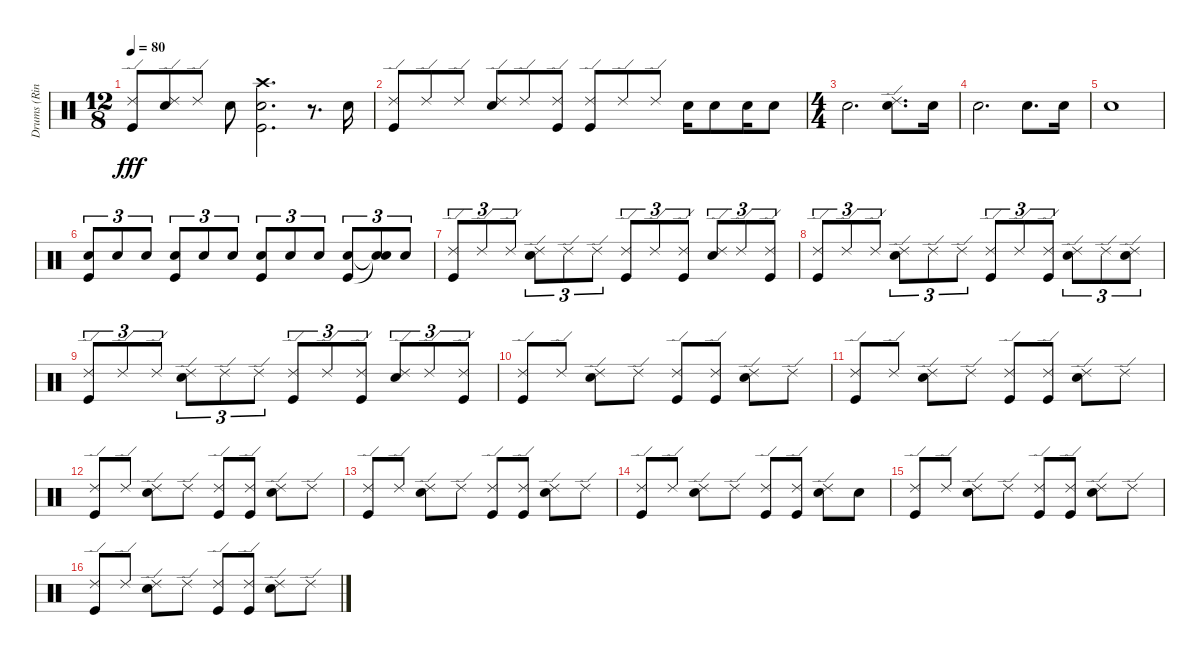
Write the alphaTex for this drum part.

\track ("Drums (Ringo Starr)" "Drums (Rin") {instrument percussion}
\staff {score}
\articulation defaults
\ts (12 8)
\tempo 80
\clef neutral
\ks c
("Ride (edge) 2" "Kick (hit)").8{dy fff} ("Ride (edge) 2" "Electric Snare (hit)").8 "Ride (edge) 2".8 "Electric Snare (hit)".8 ("Crash high (hit)" "Electric Snare (hit)" "Kick (hit)").2{d} r.8{d} "Electric Snare (hit)".16 |
("Ride (edge) 2" "Kick (hit)").8 "Ride (edge) 2".8 "Ride (edge) 2".8 ("Ride (edge) 2" "Electric Snare (hit)").8 "Ride (edge) 2".8 ("Ride (edge) 2" "Kick (hit)").8 ("Ride (edge) 2" "Kick (hit)").8 "Ride (edge) 2".8 "Ride (edge) 2".8 "Electric Snare (hit)".16 "Electric Snare (hit)".8 "Electric Snare (hit)".16 "Electric Snare (hit)".8 |
\ts (4 4)
"Electric Snare (hit)".2{d} ("Electric Snare (hit)" "Ride (edge) 2").8{d} "Electric Snare (hit)".16 |
"Electric Snare (hit)".2{d} "Electric Snare (hit)".8{d} "Electric Snare (hit)".16 |
"Electric Snare (hit)".1 |
("Kick (hit)" "Electric Snare (hit)").8{tu (3 2)} "Electric Snare (hit)".8{tu (3 2)} "Electric Snare (hit)".8{tu (3 2)} ("Kick (hit)" "Electric Snare (hit)").8{tu (3 2)} "Electric Snare (hit)".8{tu (3 2)} "Electric Snare (hit)".8{tu (3 2)} ("Kick (hit)" "Electric Snare (hit)").8{tu (3 2)} "Electric Snare (hit)".8{tu (3 2)} "Electric Snare (hit)".8{tu (3 2)} ("Kick (hit)" "Electric Snare (hit)").8{tu (3 2)} ("Snare (hit)"{t} "Snare (hit)"{t}).8{tu (3 2)} "Electric Snare (hit)".8{tu (3 2)} |
("Ride (edge) 2" "Kick (hit)").8{tu (3 2)} "Ride (edge) 2".8{tu (3 2)} "Ride (edge) 2".8{tu (3 2)} ("Ride (edge) 2" "Electric Snare (hit)").8{tu (3 2)} "Ride (edge) 2".8{tu (3 2)} "Ride (edge) 2".8{tu (3 2)} ("Ride (edge) 2" "Kick (hit)").8{tu (3 2)} "Ride (edge) 2".8{tu (3 2)} ("Ride (edge) 2" "Kick (hit)").8{tu (3 2)} ("Ride (edge) 2" "Electric Snare (hit)").8{tu (3 2)} "Ride (edge) 2".8{tu (3 2)} ("Ride (edge) 2" "Kick (hit)").8{tu (3 2)} |
("Ride (edge) 2" "Kick (hit)").8{tu (3 2)} "Ride (edge) 2".8{tu (3 2)} "Ride (edge) 2".8{tu (3 2)} ("Ride (edge) 2" "Electric Snare (hit)").8{tu (3 2)} "Ride (edge) 2".8{tu (3 2)} "Ride (edge) 2".8{tu (3 2)} ("Ride (edge) 2" "Kick (hit)").8{tu (3 2)} "Ride (edge) 2".8{tu (3 2)} ("Ride (edge) 2" "Kick (hit)").8{tu (3 2)} ("Ride (edge) 2" "Electric Snare (hit)").8{tu (3 2)} "Ride (edge) 2".8{tu (3 2)} ("Ride (edge) 2" "Electric Snare (hit)").8{tu (3 2)} |
("Ride (edge) 2" "Kick (hit)").8{tu (3 2)} "Ride (edge) 2".8{tu (3 2)} "Ride (edge) 2".8{tu (3 2)} ("Ride (edge) 2" "Electric Snare (hit)").8{tu (3 2)} "Ride (edge) 2".8{tu (3 2)} "Ride (edge) 2".8{tu (3 2)} ("Ride (edge) 2" "Kick (hit)").8{tu (3 2)} "Ride (edge) 2".8{tu (3 2)} ("Ride (edge) 2" "Kick (hit)").8{tu (3 2)} ("Ride (edge) 2" "Electric Snare (hit)").8{tu (3 2)} "Ride (edge) 2".8{tu (3 2)} ("Ride (edge) 2" "Kick (hit)").8{tu (3 2)} |
("Ride (edge) 2" "Kick (hit)").8 "Ride (edge) 2".8 ("Ride (edge) 2" "Electric Snare (hit)").8 "Ride (edge) 2".8 ("Ride (edge) 2" "Kick (hit)").8 ("Ride (edge) 2" "Kick (hit)").8 ("Ride (edge) 2" "Electric Snare (hit)").8 "Ride (edge) 2".8 |
("Ride (edge) 2" "Kick (hit)").8 "Ride (edge) 2".8 ("Ride (edge) 2" "Electric Snare (hit)").8 "Ride (edge) 2".8 ("Ride (edge) 2" "Kick (hit)").8 ("Ride (edge) 2" "Kick (hit)").8 ("Ride (edge) 2" "Electric Snare (hit)").8 "Ride (edge) 2".8 |
("Ride (edge) 2" "Kick (hit)").8 "Ride (edge) 2".8 ("Ride (edge) 2" "Electric Snare (hit)").8 "Ride (edge) 2".8 ("Ride (edge) 2" "Kick (hit)").8 ("Ride (edge) 2" "Kick (hit)").8 ("Ride (edge) 2" "Electric Snare (hit)").8 "Ride (edge) 2".8 |
("Ride (edge) 2" "Kick (hit)").8 "Ride (edge) 2".8 ("Ride (edge) 2" "Electric Snare (hit)").8 "Ride (edge) 2".8 ("Ride (edge) 2" "Kick (hit)").8 ("Ride (edge) 2" "Kick (hit)").8 ("Ride (edge) 2" "Electric Snare (hit)").8 "Ride (edge) 2".8 |
("Kick (hit)" "Ride (edge) 2").8 "Ride (edge) 2".8 ("Ride (edge) 2" "Electric Snare (hit)").8 "Ride (edge) 2".8 ("Ride (edge) 2" "Kick (hit)").8 ("Ride (edge) 2" "Kick (hit)").8 ("Ride (edge) 2" "Electric Snare (hit)").8 "Electric Snare (hit)".8 |
("Ride (edge) 2" "Kick (hit)").8 "Ride (edge) 2".8 ("Ride (edge) 2" "Electric Snare (hit)").8 "Ride (edge) 2".8 ("Ride (edge) 2" "Kick (hit)").8 ("Ride (edge) 2" "Kick (hit)").8 ("Ride (edge) 2" "Electric Snare (hit)").8 "Ride (edge) 2".8 |
("Ride (edge) 2" "Kick (hit)").8 "Ride (edge) 2".8 ("Ride (edge) 2" "Electric Snare (hit)").8 "Ride (edge) 2".8 ("Ride (edge) 2" "Kick (hit)").8 ("Ride (edge) 2" "Kick (hit)").8 ("Ride (edge) 2" "Electric Snare (hit)").8 "Ride (edge) 2".8
